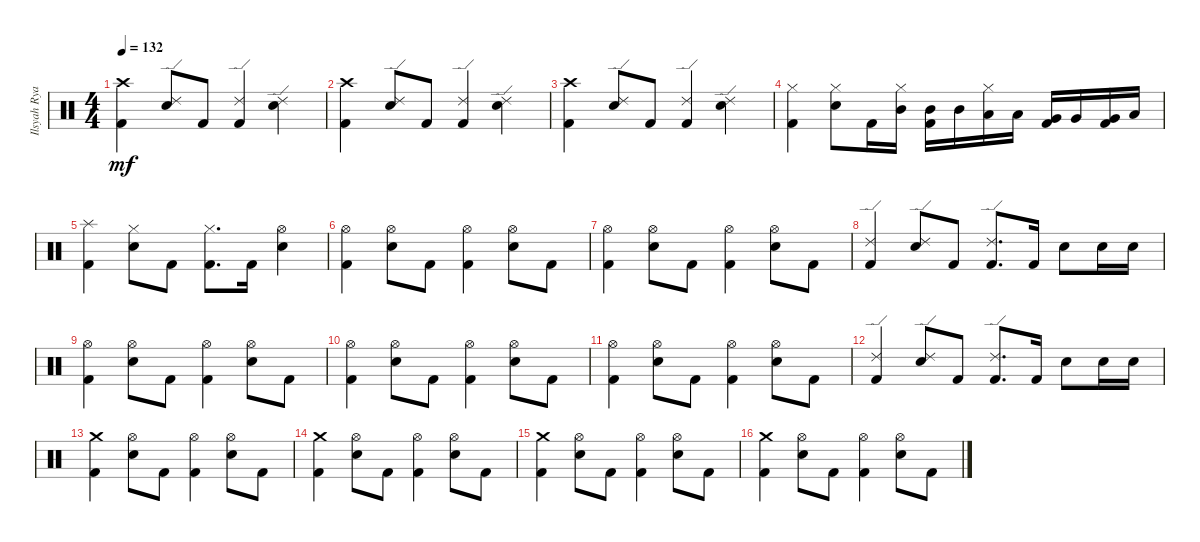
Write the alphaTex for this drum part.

\track ("Ilsyah Ryan Reza (drum)" "Ilsyah Rya") {instrument percussion}
\staff {score}
\articulation defaults
\ts (4 4)
\tempo 132
\clef neutral
\ks c
("Crash high (hit)" "Kick (hit) 2").4{dy mf} ("Ride (edge) 2" "Electric Snare (hit)").8 "Kick (hit) 2".8 ("Ride (edge) 2" "Kick (hit) 2").4 ("Ride (edge) 2" "Electric Snare (hit)").4 |
("Crash high (hit)" "Kick (hit) 2").4 ("Ride (edge) 2" "Electric Snare (hit)").8 "Kick (hit) 2".8 ("Ride (edge) 2" "Kick (hit) 2").4 ("Ride (edge) 2" "Electric Snare (hit)").4 |
("Crash high (hit)" "Kick (hit) 2").4 ("Ride (edge) 2" "Electric Snare (hit)").8 "Kick (hit) 2".8 ("Ride (edge) 2" "Kick (hit) 2").4 ("Ride (edge) 2" "Electric Snare (hit)").4 |
("Hi-Hat (closed)" "Kick (hit) 2").4 ("Hi-Hat (closed)" "Electric Snare (hit)").8 "Kick (hit) 2".16 ("Hi-Hat (closed)" "Mid Tom (hit)").16 ("Mid Tom (hit)" "Kick (hit) 2").16 "Mid Tom (hit)".16 ("Hi-Hat (closed)" "Low Tom (hit)").16 "Low Tom (hit)".16 ("Very Low Tom (hit)" "Kick (hit) 2").16 "Very Low Tom (hit)".16 ("Very Low Tom (hit)" "Kick (hit) 2").16 "Low Floor Tom (hit)".16 |
("Splash (hit)" "Kick (hit) 2").4 ("Hi-Hat (closed)" "Electric Snare (hit)").8 "Kick (hit) 2".8 ("Hi-Hat (closed)" "Kick (hit) 2").8{d} "Kick (hit) 2".16 ("Hi-Hat (open)" "Electric Snare (hit)").4 |
("Hi-Hat (open)" "Kick (hit) 2").4 ("Hi-Hat (open)" "Electric Snare (hit)").8 "Kick (hit) 2".8 ("Hi-Hat (open)" "Kick (hit) 2").4 ("Hi-Hat (open)" "Electric Snare (hit)").8 "Kick (hit) 2".8 |
("Hi-Hat (open)" "Kick (hit) 2").4 ("Hi-Hat (open)" "Electric Snare (hit)").8 "Kick (hit) 2".8 ("Hi-Hat (open)" "Kick (hit) 2").4 ("Hi-Hat (open)" "Electric Snare (hit)").8 "Kick (hit) 2".8 |
("Ride (edge) 2" "Kick (hit) 2").4 ("Ride (edge) 2" "Electric Snare (hit)").8 "Kick (hit) 2".8 ("Ride (edge) 2" "Kick (hit) 2").8{d} "Kick (hit) 2".16 "Electric Snare (hit)".8 "Electric Snare (hit)".16 "Electric Snare (hit)".16 |
("Hi-Hat (open)" "Kick (hit) 2").4 ("Hi-Hat (open)" "Electric Snare (hit)").8 "Kick (hit) 2".8 ("Hi-Hat (open)" "Kick (hit) 2").4 ("Hi-Hat (open)" "Electric Snare (hit)").8 "Kick (hit) 2".8 |
("Hi-Hat (open)" "Kick (hit) 2").4 ("Hi-Hat (open)" "Electric Snare (hit)").8 "Kick (hit) 2".8 ("Hi-Hat (open)" "Kick (hit) 2").4 ("Hi-Hat (open)" "Electric Snare (hit)").8 "Kick (hit) 2".8 |
("Hi-Hat (open)" "Kick (hit) 2").4 ("Hi-Hat (open)" "Electric Snare (hit)").8 "Kick (hit) 2".8 ("Hi-Hat (open)" "Kick (hit) 2").4 ("Hi-Hat (open)" "Electric Snare (hit)").8 "Kick (hit) 2".8 |
("Ride (edge) 2" "Kick (hit) 2").4 ("Ride (edge) 2" "Electric Snare (hit)").8 "Kick (hit) 2".8 ("Ride (edge) 2" "Kick (hit) 2").8{d} "Kick (hit) 2".16 "Electric Snare (hit)".8 "Electric Snare (hit)".16 "Electric Snare (hit)".16 |
("Crash medium (hit)" "Kick (hit) 2").4 ("Hi-Hat (open)" "Electric Snare (hit)").8 "Kick (hit) 2".8 ("Hi-Hat (open)" "Kick (hit) 2").4 ("Hi-Hat (open)" "Electric Snare (hit)").8 "Kick (hit) 2".8 |
("Crash medium (hit)" "Kick (hit) 2").4 ("Hi-Hat (open)" "Electric Snare (hit)").8 "Kick (hit) 2".8 ("Hi-Hat (open)" "Kick (hit) 2").4 ("Hi-Hat (open)" "Electric Snare (hit)").8 "Kick (hit) 2".8 |
("Crash medium (hit)" "Kick (hit) 2").4 ("Hi-Hat (open)" "Electric Snare (hit)").8 "Kick (hit) 2".8 ("Hi-Hat (open)" "Kick (hit) 2").4 ("Hi-Hat (open)" "Electric Snare (hit)").8 "Kick (hit) 2".8 |
("Crash medium (hit)" "Kick (hit) 2").4 ("Hi-Hat (open)" "Electric Snare (hit)").8 "Kick (hit) 2".8 ("Hi-Hat (open)" "Kick (hit) 2").4 ("Hi-Hat (open)" "Electric Snare (hit)").8 "Kick (hit) 2".8
